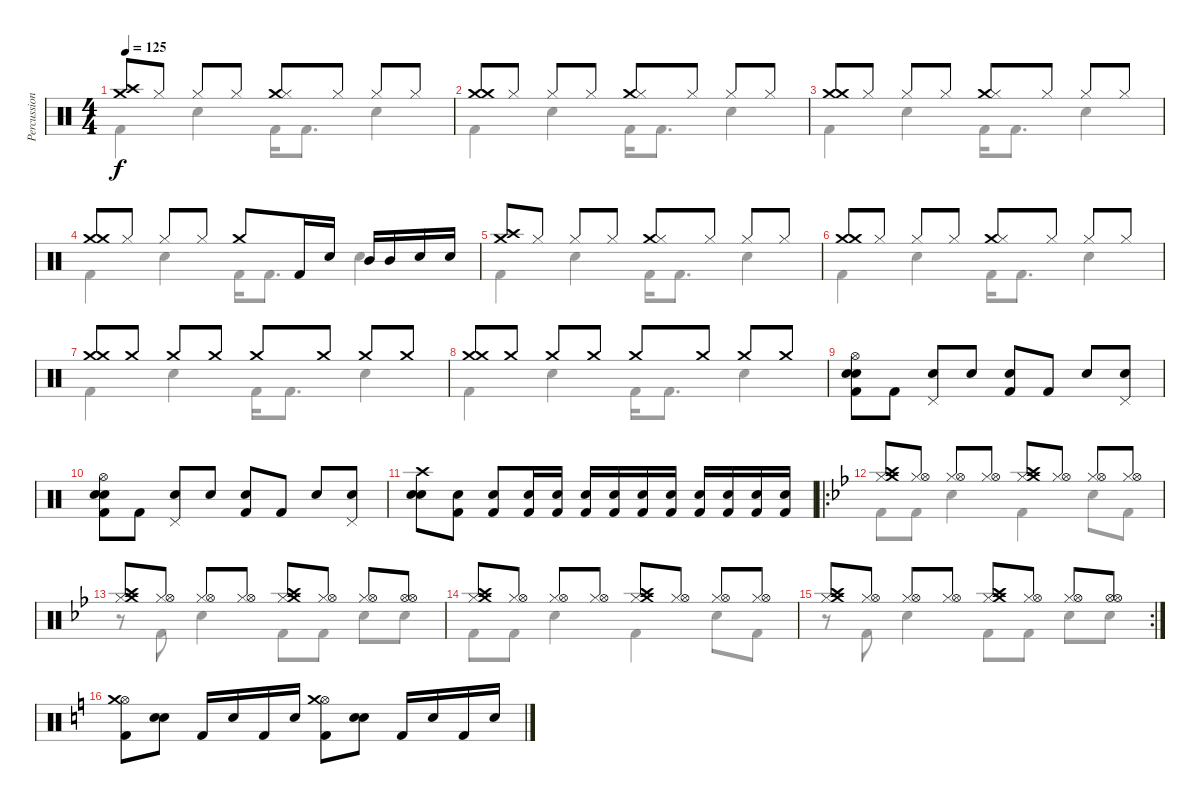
\track ("Percussion" "Percussion") {instrument percussion}
\staff {score}
\articulation defaults
\voice
\ts (4 4)
\tempo 125
\clef neutral
\ks c
("Crash medium (hit)" "Crash high (hit)").8{dy f} "Hi-Hat (closed)".8 "Hi-Hat (closed)".8 "Hi-Hat (closed)".8 ("Crash medium (hit)" "Hi-Hat (closed)").8 "Hi-Hat (closed)".8 "Hi-Hat (closed)".8 "Hi-Hat (closed)".8 |
("Crash medium (hit)" "Crash medium (hit)").8 "Hi-Hat (closed)".8 "Hi-Hat (closed)".8 "Hi-Hat (closed)".8 ("Crash medium (hit)" "Hi-Hat (closed)").8 "Hi-Hat (closed)".8 "Hi-Hat (closed)".8 "Hi-Hat (closed)".8 |
("Crash medium (hit)" "Crash medium (hit)").8 "Hi-Hat (closed)".8 "Hi-Hat (closed)".8 "Hi-Hat (closed)".8 ("Crash medium (hit)" "Hi-Hat (closed)").8 "Hi-Hat (closed)".8 "Hi-Hat (closed)".8 "Hi-Hat (closed)".8 |
("Crash medium (hit)" "Crash medium (hit)").8 "Hi-Hat (closed)".8 "Hi-Hat (closed)".8 "Hi-Hat (closed)".8 "Crash medium (hit)".8 "Kick (hit) 2".16 "Snare (hit) 2".16 "Mid Tom (hit)".16 "Mid Tom (hit)".16 "Snare (hit) 2".16 "Electric Snare (hit)".16 |
("Crash medium (hit)" "Crash high (hit)").8 "Hi-Hat (closed)".8 "Hi-Hat (closed)".8 "Hi-Hat (closed)".8 ("Crash medium (hit)" "Hi-Hat (closed)").8 "Hi-Hat (closed)".8 "Hi-Hat (closed)".8 "Hi-Hat (closed)".8 |
("Crash medium (hit)" "Crash medium (hit)").8 "Hi-Hat (closed)".8 "Hi-Hat (closed)".8 "Hi-Hat (closed)".8 ("Crash medium (hit)" "Hi-Hat (closed)").8 "Hi-Hat (closed)".8 "Hi-Hat (closed)".8 "Hi-Hat (closed)".8 |
("Crash medium (hit)" "Crash medium (hit)").8 "Crash medium (hit)".8 "Crash medium (hit)".8 "Crash medium (hit)".8 "Crash medium (hit)".8 "Crash medium (hit)".8 "Crash medium (hit)".8 "Crash medium (hit)".8 |
("Crash medium (hit)" "Crash medium (hit)").8 "Crash medium (hit)".8 "Crash medium (hit)".8 "Crash medium (hit)".8 "Crash medium (hit)".8 "Crash medium (hit)".8 "Crash medium (hit)".8 "Crash medium (hit)".8 |
("Kick (hit) 2" "Electric Snare (hit)" "Snare (hit) 2" "Hi-Hat (open)").8 "Kick (hit) 2".8 ("Snare (hit) 2" "Pedal Hi-Hat (hit)").8 "Snare (hit) 2".8 ("Kick (hit) 2" "Electric Snare (hit)").8 "Kick (hit) 2".8 "Snare (hit) 2".8 ("Snare (hit) 2" "Pedal Hi-Hat (hit)").8 |
("Kick (hit) 2" "Electric Snare (hit)" "Snare (hit) 2" "Hi-Hat (open)").8 "Kick (hit) 2".8 ("Snare (hit) 2" "Pedal Hi-Hat (hit)").8 "Snare (hit) 2".8 ("Kick (hit) 2" "Electric Snare (hit)").8 "Kick (hit) 2".8 "Snare (hit) 2".8 ("Snare (hit) 2" "Pedal Hi-Hat (hit)").8 |
("Electric Snare (hit)" "Snare (hit) 2" "Crash high (hit)").8 ("Kick (hit) 2" "Snare (hit) 2").8 ("Kick (hit) 2" "Snare (hit) 2").8 ("Kick (hit) 2" "Electric Snare (hit)").16 ("Kick (hit) 2" "Electric Snare (hit)").16 ("Kick (hit) 2" "Electric Snare (hit)").16 ("Kick (hit) 2" "Electric Snare (hit)").16 ("Kick (hit) 2" "Electric Snare (hit)").16 ("Kick (hit) 2" "Electric Snare (hit)").16 ("Kick (hit) 2" "Electric Snare (hit)").16 ("Kick (hit) 2" "Electric Snare (hit)").16 ("Kick (hit) 2" "Electric Snare (hit)").16 ("Kick (hit) 2" "Electric Snare (hit)").16 |
\ro
\ks bb
("Hi-Hat (closed)" "Crash high (hit)" "Crash medium (hit)").8 ("Hi-Hat (closed)" "Hi-Hat (open)").8 ("Hi-Hat (closed)" "Hi-Hat (open)").8 ("Hi-Hat (closed)" "Hi-Hat (open)").8 ("Hi-Hat (closed)" "Crash high (hit)" "Crash medium (hit)").8 ("Hi-Hat (closed)" "Hi-Hat (open)").8 ("Hi-Hat (closed)" "Hi-Hat (open)").8 ("Hi-Hat (closed)" "Hi-Hat (open)").8 |
("Hi-Hat (closed)" "Crash high (hit)" "Crash medium (hit)").8 ("Hi-Hat (closed)" "Hi-Hat (open)").8 ("Hi-Hat (closed)" "Hi-Hat (open)").8 ("Hi-Hat (closed)" "Hi-Hat (open)").8 ("Hi-Hat (closed)" "Crash high (hit)" "Crash medium (hit)").8 ("Hi-Hat (closed)" "Hi-Hat (open)").8 ("Hi-Hat (closed)" "Hi-Hat (open)").8 ("Hi-Hat (open)" "Hi-Hat (open)").8 |
("Hi-Hat (closed)" "Crash high (hit)" "Crash medium (hit)").8 ("Hi-Hat (closed)" "Hi-Hat (open)").8 ("Hi-Hat (closed)" "Hi-Hat (open)").8 ("Hi-Hat (closed)" "Hi-Hat (open)").8 ("Hi-Hat (closed)" "Crash high (hit)" "Crash medium (hit)").8 ("Hi-Hat (closed)" "Hi-Hat (open)").8 ("Hi-Hat (closed)" "Hi-Hat (open)").8 ("Hi-Hat (closed)" "Hi-Hat (open)").8 |
\rc 2
("Hi-Hat (closed)" "Crash high (hit)" "Crash medium (hit)").8 ("Hi-Hat (closed)" "Hi-Hat (open)").8 ("Hi-Hat (closed)" "Hi-Hat (open)").8 ("Hi-Hat (closed)" "Hi-Hat (open)").8 ("Hi-Hat (closed)" "Crash high (hit)" "Crash medium (hit)").8 ("Hi-Hat (closed)" "Hi-Hat (open)").8 ("Hi-Hat (closed)" "Hi-Hat (open)").8 ("Hi-Hat (open)" "Hi-Hat (open)").8 |
\ks c
("Kick (hit) 2" "Hi-Hat (open)" "Crash medium (hit)").8 ("Snare (hit) 2" "Electric Snare (hit)").8 "Kick (hit) 2".16 "Snare (hit) 2".16 "Kick (hit) 2".16 "Electric Snare (hit)".16 ("Kick (hit) 2" "Hi-Hat (open)" "Crash medium (hit)").8 ("Snare (hit) 2" "Electric Snare (hit)").8 "Kick (hit) 2".16 "Snare (hit) 2".16 "Kick (hit) 2".16 "Electric Snare (hit)".16
\voice
\clef neutral
\ottava regular
\simile none
\ks c "Kick (hit) 2".4{dy f} "Electric Snare (hit)".4 "Kick (hit) 2".16 "Kick (hit) 2".8{d} "Electric Snare (hit)".4
|
"Kick (hit) 2".4 "Electric Snare (hit)".4 "Kick (hit) 2".16 "Kick (hit) 2".8{d} "Electric Snare (hit)".4 |
"Kick (hit) 2".4 "Electric Snare (hit)".4 "Kick (hit) 2".16 "Kick (hit) 2".8{d} "Electric Snare (hit)".4 |
"Kick (hit) 2".4 "Electric Snare (hit)".4 "Kick (hit) 2".16 "Kick (hit) 2".8{d} "Electric Snare (hit)".4 |
"Kick (hit) 2".4 "Electric Snare (hit)".4 "Kick (hit) 2".16 "Kick (hit) 2".8{d} "Electric Snare (hit)".4 |
"Kick (hit) 2".4 "Electric Snare (hit)".4 "Kick (hit) 2".16 "Kick (hit) 2".8{d} "Electric Snare (hit)".4 |
"Kick (hit) 2".4 "Electric Snare (hit)".4 "Kick (hit) 2".16 "Kick (hit) 2".8{d} "Electric Snare (hit)".4 |
"Kick (hit) 2".4 "Electric Snare (hit)".4 "Kick (hit) 2".16 "Kick (hit) 2".8{d} "Electric Snare (hit)".4 |
|
|
|
\ks bb "Kick (hit) 2".8 "Kick (hit) 2".8 "Electric Snare (hit)".4 "Kick (hit) 2".4 "Electric Snare (hit)".8 "Kick (hit) 2".8
|
r.8 "Kick (hit) 2".8 "Electric Snare (hit)".4 "Kick (hit) 2".8 "Kick (hit) 2".8 "Electric Snare (hit)".8 "Electric Snare (hit)".8 |
"Kick (hit) 2".8 "Kick (hit) 2".8 "Electric Snare (hit)".4 "Kick (hit) 2".4 "Electric Snare (hit)".8 "Kick (hit) 2".8 |
r.8 "Kick (hit) 2".8 "Electric Snare (hit)".4 "Kick (hit) 2".8 "Kick (hit) 2".8 "Electric Snare (hit)".8 "Electric Snare (hit)".8 |
\ks c
